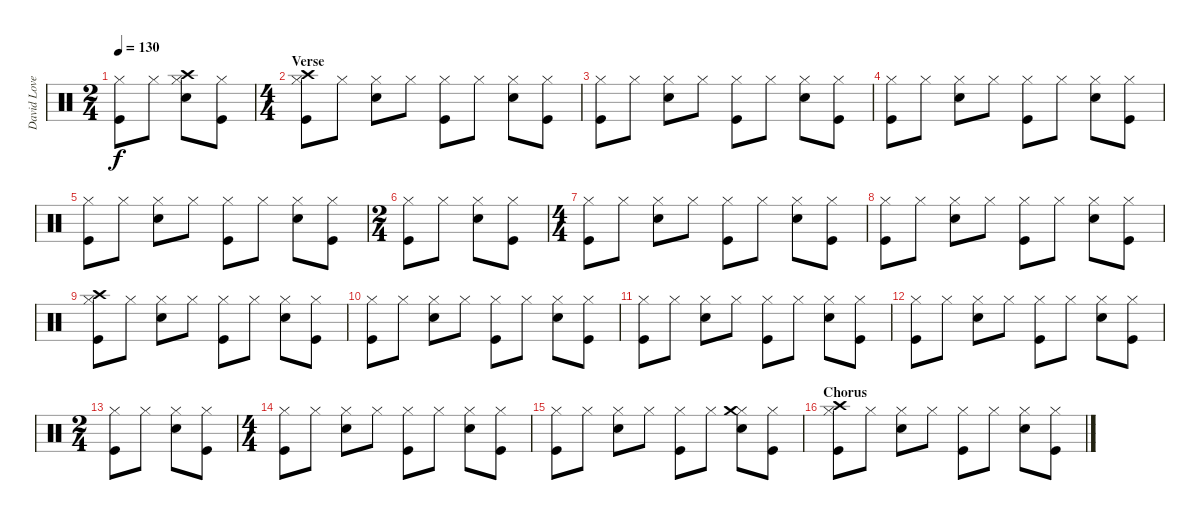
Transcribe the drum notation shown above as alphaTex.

\track ("David Lovering" "David Love") {instrument percussion}
\staff {score}
\articulation defaults
\ts (2 4)
\tempo 130
\clef neutral
\ks c
("Hi-Hat (closed)" "Kick (hit)").8{dy f} "Hi-Hat (closed)".8 ("Hi-Hat (closed)" "Crash high (hit)" "Snare (hit) 2").8 ("Hi-Hat (closed)" "Kick (hit)").8 |
\ts (4 4)
\section ("" "Verse")
("Hi-Hat (closed)" "Crash high (hit)" "Kick (hit)").8 "Hi-Hat (closed)".8 ("Hi-Hat (closed)" "Snare (hit) 2").8 "Hi-Hat (closed)".8 ("Hi-Hat (closed)" "Kick (hit)").8 "Hi-Hat (closed)".8 ("Hi-Hat (closed)" "Snare (hit) 2").8 ("Hi-Hat (closed)" "Kick (hit)").8 |
("Hi-Hat (closed)" "Kick (hit)").8 "Hi-Hat (closed)".8 ("Hi-Hat (closed)" "Snare (hit) 2").8 "Hi-Hat (closed)".8 ("Hi-Hat (closed)" "Kick (hit)").8 "Hi-Hat (closed)".8 ("Hi-Hat (closed)" "Snare (hit) 2").8 ("Hi-Hat (closed)" "Kick (hit)").8 |
("Hi-Hat (closed)" "Kick (hit)").8 "Hi-Hat (closed)".8 ("Hi-Hat (closed)" "Snare (hit) 2").8 "Hi-Hat (closed)".8 ("Hi-Hat (closed)" "Kick (hit)").8 "Hi-Hat (closed)".8 ("Hi-Hat (closed)" "Snare (hit) 2").8 ("Hi-Hat (closed)" "Kick (hit)").8 |
("Hi-Hat (closed)" "Kick (hit)").8 "Hi-Hat (closed)".8 ("Hi-Hat (closed)" "Snare (hit) 2").8 "Hi-Hat (closed)".8 ("Hi-Hat (closed)" "Kick (hit)").8 "Hi-Hat (closed)".8 ("Hi-Hat (closed)" "Snare (hit) 2").8 ("Hi-Hat (closed)" "Kick (hit)").8 |
\ts (2 4)
("Hi-Hat (closed)" "Kick (hit)").8 "Hi-Hat (closed)".8 ("Hi-Hat (closed)" "Snare (hit) 2").8 ("Hi-Hat (closed)" "Kick (hit)").8 |
\ts (4 4)
("Hi-Hat (closed)" "Kick (hit)").8 "Hi-Hat (closed)".8 ("Hi-Hat (closed)" "Snare (hit) 2").8 "Hi-Hat (closed)".8 ("Hi-Hat (closed)" "Kick (hit)").8 "Hi-Hat (closed)".8 ("Hi-Hat (closed)" "Snare (hit) 2").8 ("Hi-Hat (closed)" "Kick (hit)").8 |
("Hi-Hat (closed)" "Kick (hit)").8 "Hi-Hat (closed)".8 ("Hi-Hat (closed)" "Snare (hit) 2").8 "Hi-Hat (closed)".8 ("Hi-Hat (closed)" "Kick (hit)").8 "Hi-Hat (closed)".8 ("Hi-Hat (closed)" "Snare (hit) 2").8 ("Hi-Hat (closed)" "Kick (hit)").8 |
("Hi-Hat (closed)" "Crash high (hit)" "Kick (hit)").8 "Hi-Hat (closed)".8 ("Hi-Hat (closed)" "Snare (hit) 2").8 "Hi-Hat (closed)".8 ("Hi-Hat (closed)" "Kick (hit)").8 "Hi-Hat (closed)".8 ("Hi-Hat (closed)" "Snare (hit) 2").8 ("Hi-Hat (closed)" "Kick (hit)").8 |
("Hi-Hat (closed)" "Kick (hit)").8 "Hi-Hat (closed)".8 ("Hi-Hat (closed)" "Snare (hit) 2").8 "Hi-Hat (closed)".8 ("Hi-Hat (closed)" "Kick (hit)").8 "Hi-Hat (closed)".8 ("Hi-Hat (closed)" "Snare (hit) 2").8 ("Hi-Hat (closed)" "Kick (hit)").8 |
("Hi-Hat (closed)" "Kick (hit)").8 "Hi-Hat (closed)".8 ("Hi-Hat (closed)" "Snare (hit) 2").8 "Hi-Hat (closed)".8 ("Hi-Hat (closed)" "Kick (hit)").8 "Hi-Hat (closed)".8 ("Hi-Hat (closed)" "Snare (hit) 2").8 ("Hi-Hat (closed)" "Kick (hit)").8 |
("Hi-Hat (closed)" "Kick (hit)").8 "Hi-Hat (closed)".8 ("Hi-Hat (closed)" "Snare (hit) 2").8 "Hi-Hat (closed)".8 ("Hi-Hat (closed)" "Kick (hit)").8 "Hi-Hat (closed)".8 ("Hi-Hat (closed)" "Snare (hit) 2").8 ("Hi-Hat (closed)" "Kick (hit)").8 |
\ts (2 4)
("Hi-Hat (closed)" "Kick (hit)").8 "Hi-Hat (closed)".8 ("Hi-Hat (closed)" "Snare (hit) 2").8 ("Hi-Hat (closed)" "Kick (hit)").8 |
\ts (4 4)
("Hi-Hat (closed)" "Kick (hit)").8 "Hi-Hat (closed)".8 ("Hi-Hat (closed)" "Snare (hit) 2").8 "Hi-Hat (closed)".8 ("Hi-Hat (closed)" "Kick (hit)").8 "Hi-Hat (closed)".8 ("Hi-Hat (closed)" "Snare (hit) 2").8 ("Hi-Hat (closed)" "Kick (hit)").8 |
("Hi-Hat (closed)" "Kick (hit)").8 "Hi-Hat (closed)".8 ("Hi-Hat (closed)" "Snare (hit) 2").8 "Hi-Hat (closed)".8 ("Hi-Hat (closed)" "Kick (hit)").8 "Hi-Hat (closed)".8 ("Hi-Hat (closed)" "Crash medium (hit)" "Snare (hit) 2").8 ("Hi-Hat (closed)" "Kick (hit)").8 |
\section ("" "Chorus")
("Hi-Hat (closed)" "Crash high (hit)" "Kick (hit)").8 "Hi-Hat (closed)".8 ("Hi-Hat (closed)" "Snare (hit) 2").8 "Hi-Hat (closed)".8 ("Hi-Hat (closed)" "Kick (hit)").8 "Hi-Hat (closed)".8 ("Hi-Hat (closed)" "Snare (hit) 2").8 ("Hi-Hat (closed)" "Kick (hit)").8
